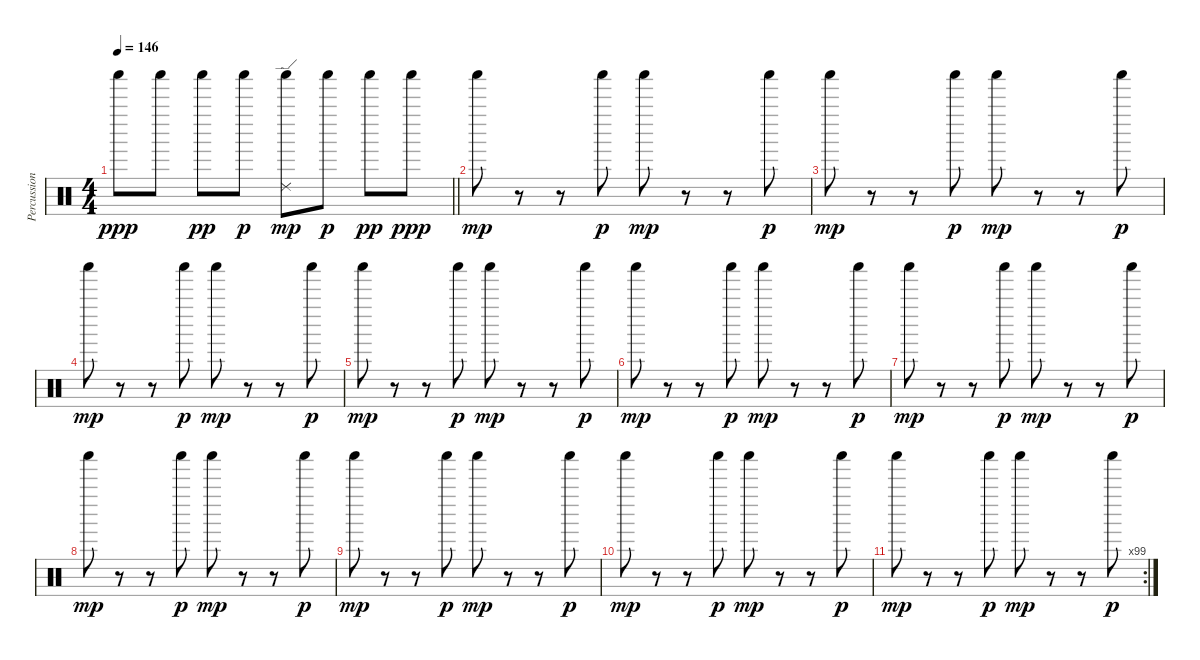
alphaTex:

\track ("Percussion" "Percussion") {instrument percussion}
\staff {score}
\articulation defaults
\ts (4 4)
\tempo 146
\clef neutral
\barLineRight lightlight
\ks c "Shaker (hit)".8{dy ppp} "Shaker (hit)".8 "Shaker (hit)".8{dy pp} "Shaker (hit)".8{dy p}
("Shaker (hit)" "Ride (edge) 2").8{dy mp} "Shaker (hit)".8{dy p} "Shaker (hit)".8{dy pp} "Shaker (hit)".8{dy ppp} |
"Shaker (hit)".8{dy mp} r.8 r.8 "Shaker (hit)".8{dy p} "Shaker (hit)".8{dy mp} r.8 r.8 "Shaker (hit)".8{dy p} |
"Shaker (hit)".8{dy mp} r.8 r.8 "Shaker (hit)".8{dy p} "Shaker (hit)".8{dy mp} r.8 r.8 "Shaker (hit)".8{dy p} |
"Shaker (hit)".8{dy mp} r.8 r.8 "Shaker (hit)".8{dy p} "Shaker (hit)".8{dy mp} r.8 r.8 "Shaker (hit)".8{dy p} |
"Shaker (hit)".8{dy mp} r.8 r.8 "Shaker (hit)".8{dy p} "Shaker (hit)".8{dy mp} r.8 r.8 "Shaker (hit)".8{dy p} |
"Shaker (hit)".8{dy mp} r.8 r.8 "Shaker (hit)".8{dy p} "Shaker (hit)".8{dy mp} r.8 r.8 "Shaker (hit)".8{dy p} |
"Shaker (hit)".8{dy mp} r.8 r.8 "Shaker (hit)".8{dy p} "Shaker (hit)".8{dy mp} r.8 r.8 "Shaker (hit)".8{dy p} |
"Shaker (hit)".8{dy mp} r.8 r.8 "Shaker (hit)".8{dy p} "Shaker (hit)".8{dy mp} r.8 r.8 "Shaker (hit)".8{dy p} |
"Shaker (hit)".8{dy mp} r.8 r.8 "Shaker (hit)".8{dy p} "Shaker (hit)".8{dy mp} r.8 r.8 "Shaker (hit)".8{dy p} |
"Shaker (hit)".8{dy mp} r.8 r.8 "Shaker (hit)".8{dy p} "Shaker (hit)".8{dy mp} r.8 r.8 "Shaker (hit)".8{dy p} |
\rc 99 "Shaker (hit)".8{dy mp}
r.8 r.8 "Shaker (hit)".8{dy p} "Shaker (hit)".8{dy mp} r.8 r.8 "Shaker (hit)".8{dy p}
